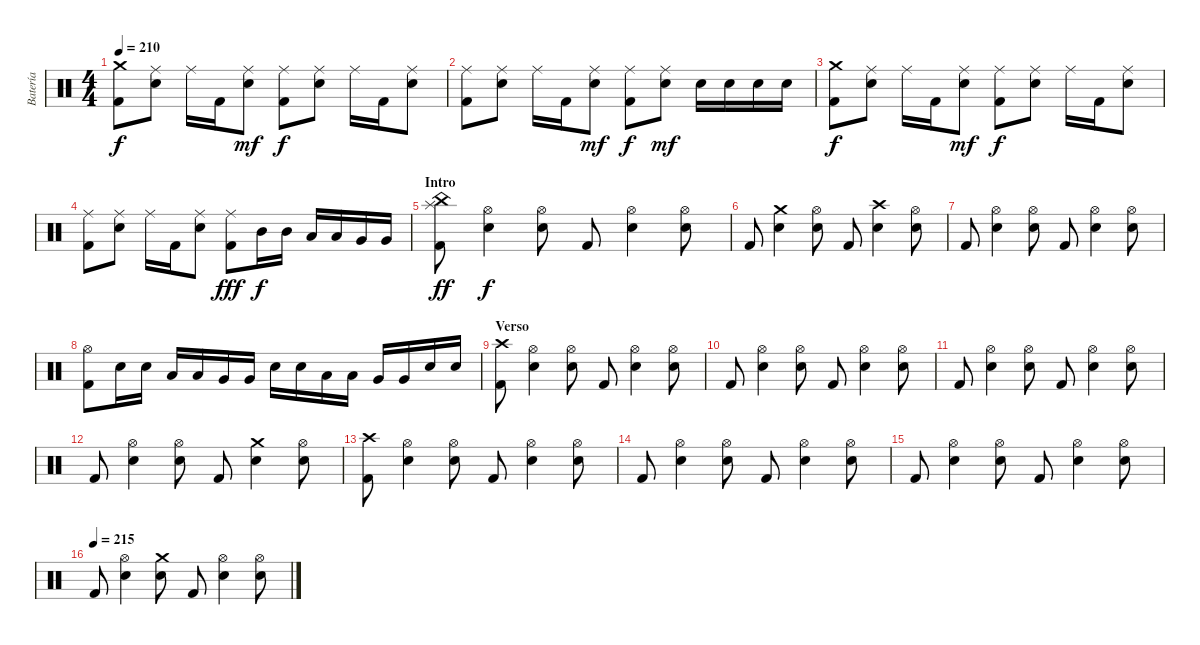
\track ("Batería" "Batería") {instrument percussion}
\staff {score}
\articulation defaults
\ts (4 4)
\tempo 210
\clef neutral
\ks c
("Crash medium (hit)" "Kick (hit) 2").8{dy f} ("Ride (middle)" "Electric Snare (hit)").8 "Ride (middle)".16 "Kick (hit) 2".16 ("Ride (middle)" "Electric Snare (hit)").8{dy mf} ("Ride (middle)" "Kick (hit) 2").8{dy f} ("Ride (middle)" "Electric Snare (hit)").8 "Ride (middle)".16 "Kick (hit) 2".16 ("Ride (middle)" "Electric Snare (hit)").8 |
("Ride (middle)" "Kick (hit) 2").8 ("Ride (middle)" "Electric Snare (hit)").8 "Ride (middle)".16 "Kick (hit) 2".16 ("Ride (middle)" "Electric Snare (hit)").8{dy mf} ("Ride (middle)" "Kick (hit) 2").8{dy f} ("Ride (middle)" "Electric Snare (hit)").8{dy mf} "Electric Snare (hit)".16 "Electric Snare (hit)".16 "Electric Snare (hit)".16 "Electric Snare (hit)".16 |
("Crash medium (hit)" "Kick (hit) 2").8{dy f} ("Ride (middle)" "Electric Snare (hit)").8 "Ride (middle)".16 "Kick (hit) 2".16 ("Ride (middle)" "Electric Snare (hit)").8{dy mf} ("Ride (middle)" "Kick (hit) 2").8{dy f} ("Ride (middle)" "Electric Snare (hit)").8 "Ride (middle)".16 "Kick (hit) 2".16 ("Ride (middle)" "Electric Snare (hit)").8 |
("Ride (middle)" "Kick (hit) 2").8 ("Ride (middle)" "Electric Snare (hit)").8 "Ride (middle)".16 "Kick (hit) 2".16 ("Ride (middle)" "Electric Snare (hit)").8 ("Ride (middle)" "Kick (hit) 2").8{dy fff} "Mid Tom (hit)".16{dy f} "Mid Tom (hit)".16 "Low Tom (hit)".16 "Low Tom (hit)".16 "Very Low Tom (hit)".16 "Very Low Tom (hit)".16 |
\section ("" "Intro")
("Splash (hit)" "China (hit)" "Kick (hit) 2").8{dy ff} ("Hi-Hat (open)" "Electric Snare (hit)").4{dy f} ("Hi-Hat (open)" "Electric Snare (hit)").8 "Kick (hit) 2".8 ("Hi-Hat (open)" "Electric Snare (hit)").4 ("Hi-Hat (open)" "Electric Snare (hit)").8 |
"Kick (hit) 2".8 ("Crash medium (hit)" "Electric Snare (hit)").4 ("Hi-Hat (open)" "Electric Snare (hit)").8 "Kick (hit) 2".8 ("Crash high (hit)" "Electric Snare (hit)").4 ("Hi-Hat (open)" "Electric Snare (hit)").8 |
"Kick (hit) 2".8 ("Hi-Hat (open)" "Electric Snare (hit)").4 ("Hi-Hat (open)" "Electric Snare (hit)").8 "Kick (hit) 2".8 ("Hi-Hat (open)" "Electric Snare (hit)").4 ("Hi-Hat (open)" "Electric Snare (hit)").8 |
("Hi-Hat (open)" "Kick (hit) 2").8 "Electric Snare (hit)".16 "Electric Snare (hit)".16 "Low Tom (hit)".16 "Low Tom (hit)".16 "Very Low Tom (hit)".16 "Very Low Tom (hit)".16 "Electric Snare (hit)".16 "Electric Snare (hit)".16 "Low Tom (hit)".16 "Low Tom (hit)".16 "Very Low Tom (hit)".16 "Very Low Tom (hit)".16 "Electric Snare (hit)".16 "Electric Snare (hit)".16 |
\section ("" "Verso")
("Crash high (hit)" "Kick (hit) 2").8 ("Hi-Hat (open)" "Electric Snare (hit)").4 ("Hi-Hat (open)" "Electric Snare (hit)").8 "Kick (hit) 2".8 ("Hi-Hat (open)" "Electric Snare (hit)").4 ("Hi-Hat (open)" "Electric Snare (hit)").8 |
"Kick (hit) 2".8 ("Hi-Hat (open)" "Electric Snare (hit)").4 ("Hi-Hat (open)" "Electric Snare (hit)").8 "Kick (hit) 2".8 ("Hi-Hat (open)" "Electric Snare (hit)").4 ("Hi-Hat (open)" "Electric Snare (hit)").8 |
"Kick (hit) 2".8 ("Hi-Hat (open)" "Electric Snare (hit)").4 ("Hi-Hat (open)" "Electric Snare (hit)").8 "Kick (hit) 2".8 ("Hi-Hat (open)" "Electric Snare (hit)").4 ("Hi-Hat (open)" "Electric Snare (hit)").8 |
"Kick (hit) 2".8 ("Hi-Hat (open)" "Electric Snare (hit)").4 ("Hi-Hat (open)" "Electric Snare (hit)").8 "Kick (hit) 2".8 ("Crash medium (hit)" "Electric Snare (hit)").4 ("Hi-Hat (open)" "Electric Snare (hit)").8 |
("Crash high (hit)" "Kick (hit) 2").8 ("Hi-Hat (open)" "Electric Snare (hit)").4 ("Hi-Hat (open)" "Electric Snare (hit)").8 "Kick (hit) 2".8 ("Hi-Hat (open)" "Electric Snare (hit)").4 ("Hi-Hat (open)" "Electric Snare (hit)").8 |
"Kick (hit) 2".8 ("Hi-Hat (open)" "Electric Snare (hit)").4 ("Hi-Hat (open)" "Electric Snare (hit)").8 "Kick (hit) 2".8 ("Hi-Hat (open)" "Electric Snare (hit)").4 ("Hi-Hat (open)" "Electric Snare (hit)").8 |
"Kick (hit) 2".8 ("Hi-Hat (open)" "Electric Snare (hit)").4 ("Hi-Hat (open)" "Electric Snare (hit)").8 "Kick (hit) 2".8 ("Hi-Hat (open)" "Electric Snare (hit)").4 ("Hi-Hat (open)" "Electric Snare (hit)").8 |
\tempo (215)
"Kick (hit) 2".8 ("Hi-Hat (open)" "Electric Snare (hit)").4 ("Crash medium (hit)" "Electric Snare (hit)").8 "Kick (hit) 2".8 ("Hi-Hat (open)" "Electric Snare (hit)").4 ("Hi-Hat (open)" "Electric Snare (hit)").8
